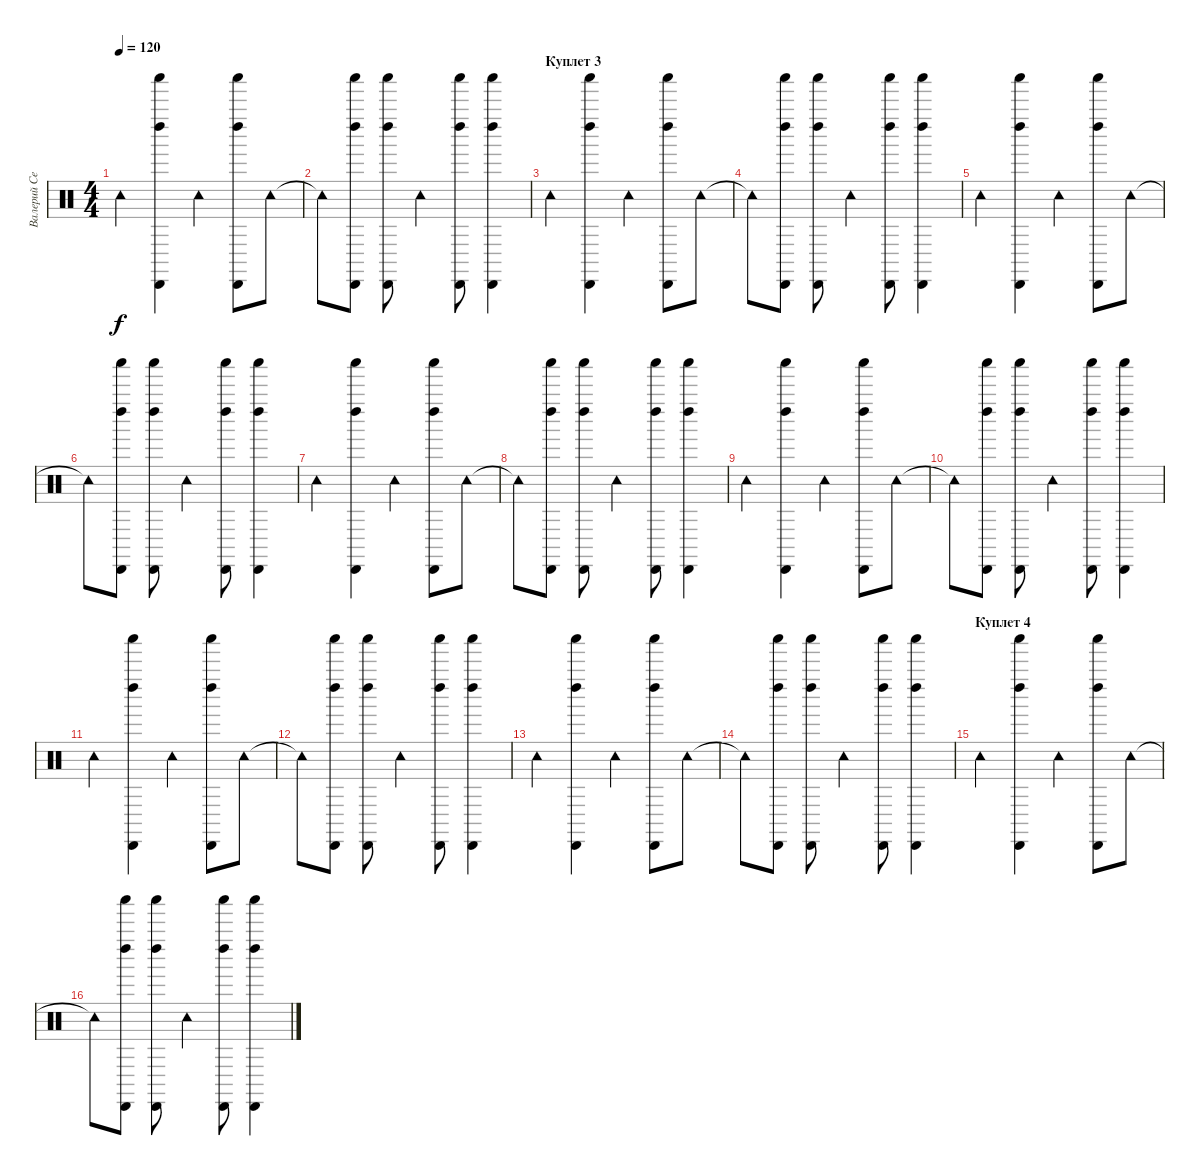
\track ("Валерий Северин" "Валерий Се") {instrument percussion}
\staff {score}
\articulation defaults
\ts (4 4)
\tempo 120
\clef neutral
\ks c "Tambourine (hit)".4{dy f}
("Left Maraca (hit)" "Cabasa (hit)" "Shaker (hit)").4 "Tambourine (hit)".4 ("Left Maraca (hit)" "Cabasa (hit)" "Shaker (hit)").8 "Tambourine (hit)".8 |
"Tambourine (hit)"{t}.8 ("Left Maraca (hit)" "Cabasa (hit)" "Shaker (hit)").8 ("Left Maraca (hit)" "Cabasa (hit)" "Shaker (hit)").8 "Tambourine (hit)".4 ("Left Maraca (hit)" "Cabasa (hit)" "Shaker (hit)").8 ("Left Maraca (hit)" "Cabasa (hit)" "Shaker (hit)").4 |
\section ("" "Куплет 3")
"Tambourine (hit)".4 ("Left Maraca (hit)" "Cabasa (hit)" "Shaker (hit)").4 "Tambourine (hit)".4 ("Left Maraca (hit)" "Cabasa (hit)" "Shaker (hit)").8 "Tambourine (hit)".8 |
"Tambourine (hit)"{t}.8 ("Left Maraca (hit)" "Cabasa (hit)" "Shaker (hit)").8 ("Left Maraca (hit)" "Cabasa (hit)" "Shaker (hit)").8 "Tambourine (hit)".4 ("Left Maraca (hit)" "Cabasa (hit)" "Shaker (hit)").8 ("Left Maraca (hit)" "Cabasa (hit)" "Shaker (hit)").4 |
"Tambourine (hit)".4 ("Left Maraca (hit)" "Cabasa (hit)" "Shaker (hit)").4 "Tambourine (hit)".4 ("Left Maraca (hit)" "Cabasa (hit)" "Shaker (hit)").8 "Tambourine (hit)".8 |
"Tambourine (hit)"{t}.8 ("Left Maraca (hit)" "Cabasa (hit)" "Shaker (hit)").8 ("Left Maraca (hit)" "Cabasa (hit)" "Shaker (hit)").8 "Tambourine (hit)".4 ("Left Maraca (hit)" "Cabasa (hit)" "Shaker (hit)").8 ("Left Maraca (hit)" "Cabasa (hit)" "Shaker (hit)").4 |
"Tambourine (hit)".4 ("Left Maraca (hit)" "Cabasa (hit)" "Shaker (hit)").4 "Tambourine (hit)".4 ("Left Maraca (hit)" "Cabasa (hit)" "Shaker (hit)").8 "Tambourine (hit)".8 |
"Tambourine (hit)"{t}.8 ("Left Maraca (hit)" "Cabasa (hit)" "Shaker (hit)").8 ("Left Maraca (hit)" "Cabasa (hit)" "Shaker (hit)").8 "Tambourine (hit)".4 ("Left Maraca (hit)" "Cabasa (hit)" "Shaker (hit)").8 ("Left Maraca (hit)" "Cabasa (hit)" "Shaker (hit)").4 |
"Tambourine (hit)".4 ("Left Maraca (hit)" "Cabasa (hit)" "Shaker (hit)").4 "Tambourine (hit)".4 ("Left Maraca (hit)" "Cabasa (hit)" "Shaker (hit)").8 "Tambourine (hit)".8 |
"Tambourine (hit)"{t}.8 ("Left Maraca (hit)" "Cabasa (hit)" "Shaker (hit)").8 ("Left Maraca (hit)" "Cabasa (hit)" "Shaker (hit)").8 "Tambourine (hit)".4 ("Left Maraca (hit)" "Cabasa (hit)" "Shaker (hit)").8 ("Left Maraca (hit)" "Cabasa (hit)" "Shaker (hit)").4 |
"Tambourine (hit)".4 ("Left Maraca (hit)" "Cabasa (hit)" "Shaker (hit)").4 "Tambourine (hit)".4 ("Left Maraca (hit)" "Cabasa (hit)" "Shaker (hit)").8 "Tambourine (hit)".8 |
"Tambourine (hit)"{t}.8 ("Left Maraca (hit)" "Cabasa (hit)" "Shaker (hit)").8 ("Left Maraca (hit)" "Cabasa (hit)" "Shaker (hit)").8 "Tambourine (hit)".4 ("Left Maraca (hit)" "Cabasa (hit)" "Shaker (hit)").8 ("Left Maraca (hit)" "Cabasa (hit)" "Shaker (hit)").4 |
"Tambourine (hit)".4 ("Left Maraca (hit)" "Cabasa (hit)" "Shaker (hit)").4 "Tambourine (hit)".4 ("Left Maraca (hit)" "Cabasa (hit)" "Shaker (hit)").8 "Tambourine (hit)".8 |
"Tambourine (hit)"{t}.8 ("Left Maraca (hit)" "Cabasa (hit)" "Shaker (hit)").8 ("Left Maraca (hit)" "Cabasa (hit)" "Shaker (hit)").8 "Tambourine (hit)".4 ("Left Maraca (hit)" "Cabasa (hit)" "Shaker (hit)").8 ("Left Maraca (hit)" "Cabasa (hit)" "Shaker (hit)").4 |
\section ("" "Куплет 4")
"Tambourine (hit)".4 ("Left Maraca (hit)" "Cabasa (hit)" "Shaker (hit)").4 "Tambourine (hit)".4 ("Left Maraca (hit)" "Cabasa (hit)" "Shaker (hit)").8 "Tambourine (hit)".8 |
"Tambourine (hit)"{t}.8 ("Left Maraca (hit)" "Cabasa (hit)" "Shaker (hit)").8 ("Left Maraca (hit)" "Cabasa (hit)" "Shaker (hit)").8 "Tambourine (hit)".4 ("Left Maraca (hit)" "Cabasa (hit)" "Shaker (hit)").8 ("Left Maraca (hit)" "Cabasa (hit)" "Shaker (hit)").4
